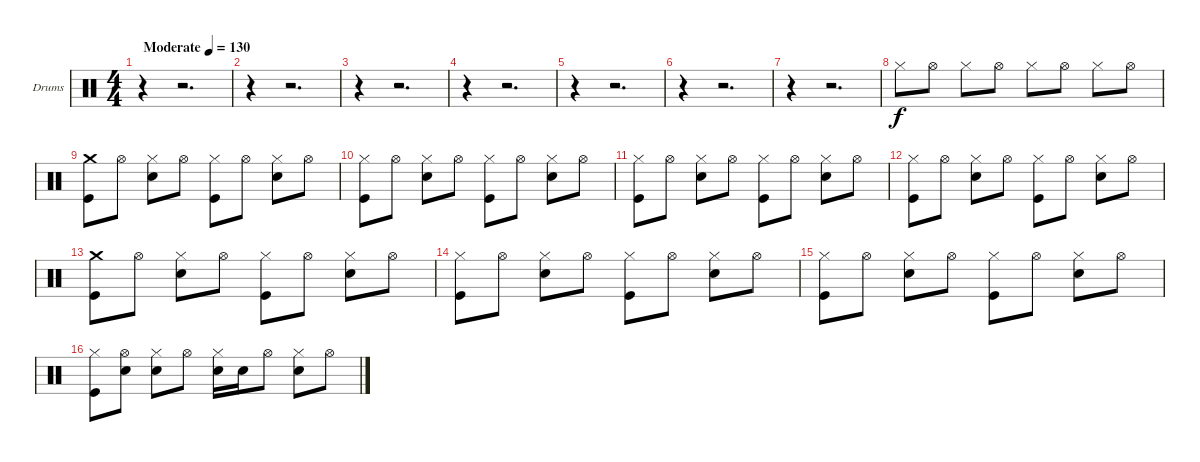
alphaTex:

\bracketExtendMode groupsimilarinstruments
\firstSystemTrackNameOrientation horizontal
\otherSystemsTrackNameOrientation horizontal
\track ("Drumkit" "Drums") {instrument percussion}
\staff {score}
\articulation defaults
\ts (4 4)
\beaming (8 2 2 2 2)
\tempo (130 "Moderate")
\clef neutral
\ks c
r.4{dy f} r.2{d} |
r.4 r.2{d} |
r.4 r.2{d} |
r.4 r.2{d} |
r.4 r.2{d} |
r.4 r.2{d} |
r.4 r.2{d} |
"Hi-Hat (closed)".8 "Hi-Hat (open)".8 "Hi-Hat (closed)".8 "Hi-Hat (open)".8 "Hi-Hat (closed)".8 "Hi-Hat (open)".8 "Hi-Hat (closed)".8 "Hi-Hat (open)".8 |
("Crash medium (hit)" "Kick (hit)").8 "Hi-Hat (open)".8 ("Hi-Hat (closed)" "Snare (hit) 2").8 "Hi-Hat (open)".8 ("Hi-Hat (closed)" "Kick (hit)").8 "Hi-Hat (open)".8 ("Hi-Hat (closed)" "Snare (hit) 2").8 "Hi-Hat (open)".8 |
("Hi-Hat (closed)" "Kick (hit)").8 "Hi-Hat (open)".8 ("Hi-Hat (closed)" "Snare (hit) 2").8 "Hi-Hat (open)".8 ("Hi-Hat (closed)" "Kick (hit)").8 "Hi-Hat (open)".8 ("Hi-Hat (closed)" "Snare (hit) 2").8 "Hi-Hat (open)".8 |
("Hi-Hat (closed)" "Kick (hit)").8 "Hi-Hat (open)".8 ("Hi-Hat (closed)" "Snare (hit) 2").8 "Hi-Hat (open)".8 ("Hi-Hat (closed)" "Kick (hit)").8 "Hi-Hat (open)".8 ("Hi-Hat (closed)" "Snare (hit) 2").8 "Hi-Hat (open)".8 |
("Hi-Hat (closed)" "Kick (hit)").8 "Hi-Hat (open)".8 ("Hi-Hat (closed)" "Snare (hit) 2").8 "Hi-Hat (open)".8 ("Hi-Hat (closed)" "Kick (hit)").8 "Hi-Hat (open)".8 ("Hi-Hat (closed)" "Snare (hit) 2").8 "Hi-Hat (open)".8 |
("Crash medium (hit)" "Kick (hit)").8 "Hi-Hat (open)".8 ("Hi-Hat (closed)" "Snare (hit) 2").8 "Hi-Hat (open)".8 ("Hi-Hat (closed)" "Kick (hit)").8 "Hi-Hat (open)".8 ("Hi-Hat (closed)" "Snare (hit) 2").8 "Hi-Hat (open)".8 |
("Hi-Hat (closed)" "Kick (hit)").8 "Hi-Hat (open)".8 ("Hi-Hat (closed)" "Snare (hit) 2").8 "Hi-Hat (open)".8 ("Hi-Hat (closed)" "Kick (hit)").8 "Hi-Hat (open)".8 ("Hi-Hat (closed)" "Snare (hit) 2").8 "Hi-Hat (open)".8 |
("Hi-Hat (closed)" "Kick (hit)").8 "Hi-Hat (open)".8 ("Hi-Hat (closed)" "Snare (hit) 2").8 "Hi-Hat (open)".8 ("Hi-Hat (closed)" "Kick (hit)").8 "Hi-Hat (open)".8 ("Hi-Hat (closed)" "Snare (hit) 2").8 "Hi-Hat (open)".8 |
("Hi-Hat (closed)" "Kick (hit)").8 ("Hi-Hat (open)" "Snare (hit) 2").8 ("Hi-Hat (closed)" "Snare (hit) 2").8 "Hi-Hat (open)".8 ("Hi-Hat (closed)" "Snare (hit) 2").16 "Snare (hit) 2".16 "Hi-Hat (open)".8 ("Hi-Hat (closed)" "Snare (hit) 2").8 "Hi-Hat (open)".8
